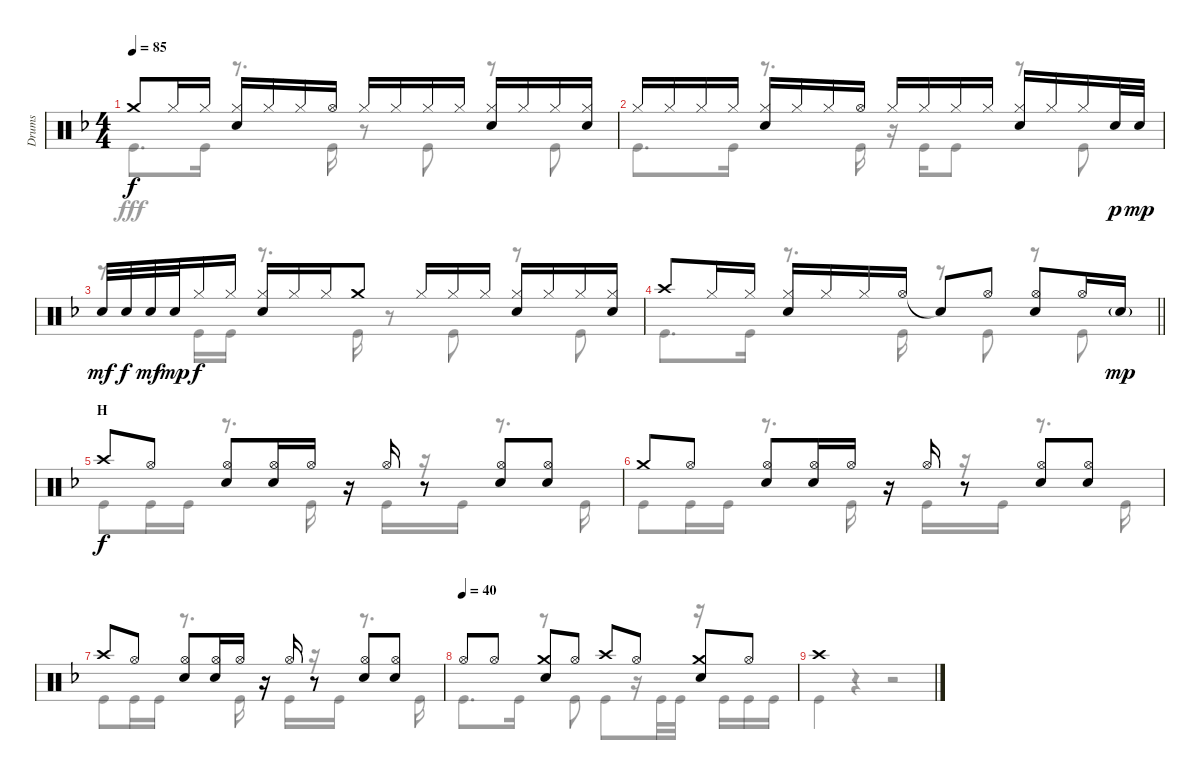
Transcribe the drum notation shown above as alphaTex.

\track ("Drums" "Drums") {instrument percussion}
\staff {score}
\articulation defaults
\voice
\ts (4 4)
\tempo 85
\clef neutral
\ks f "Crash medium (hit)".8{dy f} "Hi-Hat (closed)".16 "Hi-Hat (closed)".16
("Hi-Hat (closed)" "Snare (hit) 2").16 "Hi-Hat (closed)".16 "Hi-Hat (closed)".16 "Hi-Hat (open)".16 "Hi-Hat (closed)".16 "Hi-Hat (closed)".16 "Hi-Hat (closed)".16 "Hi-Hat (closed)".16 ("Hi-Hat (closed)" "Snare (hit) 2").16 "Hi-Hat (closed)".16 "Hi-Hat (closed)".16 ("Hi-Hat (closed)" "Snare (hit) 2").16 |
"Hi-Hat (closed)".16 "Hi-Hat (closed)".16 "Hi-Hat (closed)".16 "Hi-Hat (closed)".16 ("Hi-Hat (closed)" "Snare (hit) 2").16 "Hi-Hat (closed)".16 "Hi-Hat (closed)".16 "Hi-Hat (open)".16 "Hi-Hat (closed)".16 "Hi-Hat (closed)".16 "Hi-Hat (closed)".16 "Hi-Hat (closed)".16 ("Hi-Hat (closed)" "Snare (hit) 2").16 "Hi-Hat (closed)".16 "Hi-Hat (closed)".16 "Snare (hit) 2".32{dy p} "Snare (hit) 2".32{dy mp} |
"Snare (hit) 2".32{dy mf} "Snare (hit) 2".32{dy f} "Snare (hit) 2".32{dy mf} "Snare (hit) 2".32{dy mp} "Hi-Hat (closed)".16{dy f} "Hi-Hat (closed)".16 ("Hi-Hat (closed)" "Snare (hit) 2").16 "Hi-Hat (closed)".16 "Hi-Hat (closed)".16 "Crash medium (hit)".8 "Hi-Hat (closed)".16 "Hi-Hat (closed)".16 "Hi-Hat (closed)".16 ("Hi-Hat (closed)" "Snare (hit) 2").16 "Hi-Hat (closed)".16 "Hi-Hat (closed)".16 ("Hi-Hat (closed)" "Snare (hit) 2").16 |
\barLineRight lightlight "Crash high (hit)".8 "Hi-Hat (closed)".16 "Hi-Hat (closed)".16
("Hi-Hat (closed)" "Snare (hit) 2").16 "Hi-Hat (closed)".16 "Hi-Hat (closed)".16 "Hi-Hat (open)".16 "Snare (hit)"{t}.8 "Hi-Hat (open)".8 ("Hi-Hat (open)" "Snare (hit) 2").8 "Hi-Hat (open)".16 "Snare (hit) 2"{g}.16{dy mp} |
\section ("" "H")
"Crash high (hit)".8{dy f} "Hi-Hat (open)".8 ("Hi-Hat (open)" "Snare (hit) 2").8 ("Hi-Hat (open)" "Snare (hit) 2").16 "Hi-Hat (open)".16 r.16 "Hi-Hat (open)".16 r.8 ("Hi-Hat (open)" "Snare (hit) 2").8 ("Hi-Hat (open)" "Snare (hit) 2").8 |
"Crash medium (hit)".8 "Hi-Hat (open)".8 ("Hi-Hat (open)" "Snare (hit) 2").8 ("Hi-Hat (open)" "Snare (hit) 2").16 "Hi-Hat (open)".16 r.16 "Hi-Hat (open)".16 r.8 ("Hi-Hat (open)" "Snare (hit) 2").8 ("Hi-Hat (open)" "Snare (hit) 2").8 |
"Crash high (hit)".8 "Hi-Hat (open)".8 ("Hi-Hat (open)" "Snare (hit) 2").8 ("Hi-Hat (open)" "Snare (hit) 2").16 "Hi-Hat (open)".16 r.16 "Hi-Hat (open)".16 r.8 ("Hi-Hat (open)" "Snare (hit) 2").8 ("Hi-Hat (open)" "Snare (hit) 2").8 |
\tempo (40)
"Hi-Hat (open)".8 "Hi-Hat (open)".8 ("Crash medium (hit)" "Snare (hit) 2").8 "Hi-Hat (open)".8 "Crash high (hit)".8 "Hi-Hat (open)".8 ("Crash medium (hit)" "Snare (hit) 2").8 "Hi-Hat (open)".8 |
"Crash high (hit)".1
\voice
\clef neutral
\ottava regular
\simile none
\ks f "Kick (hit)".8{d dy fff} "Kick (hit)".16
r.8{d} "Kick (hit)".16 r.8 "Kick (hit)".8 r.8 "Kick (hit)".8 |
"Kick (hit)".8{d} "Kick (hit)".16 r.8{d} "Kick (hit)".16 r.16 "Kick (hit)".16 "Kick (hit)".8 r.8 "Kick (hit)".8 |
r.8 "Kick (hit)".16 "Kick (hit)".16 r.8{d} "Kick (hit)".16 r.8 "Kick (hit)".8 r.8 "Kick (hit)".8 |
\barLineRight lightlight "Kick (hit)".8{d} "Kick (hit)".16
r.8{d} "Kick (hit)".16 r.8 "Kick (hit)".8 r.8 "Kick (hit)".8 |
"Kick (hit)".8 "Kick (hit)".16 "Kick (hit)".16 r.8{d} "Kick (hit)".16 r.16 "Kick (hit)".16 r.16 "Kick (hit)".16 r.8{d} "Kick (hit)".16 |
"Kick (hit)".8 "Kick (hit)".16 "Kick (hit)".16 r.8{d} "Kick (hit)".16 r.16 "Kick (hit)".16 r.16 "Kick (hit)".16 r.8{d} "Kick (hit)".16 |
"Kick (hit)".8 "Kick (hit)".16 "Kick (hit)".16 r.8{d} "Kick (hit)".16 r.16 "Kick (hit)".16 r.16 "Kick (hit)".16 r.8{d} "Kick (hit)".16 |
"Kick (hit)".8{d} "Kick (hit)".16 r.8 "Kick (hit)".8 "Kick (hit)".8 r.16 "Kick (hit)".32 "Kick (hit)".32 r.16 "Kick (hit)".16 "Kick (hit)".16 "Kick (hit)".16 |
"Kick (hit)".4 r.4 r.2
